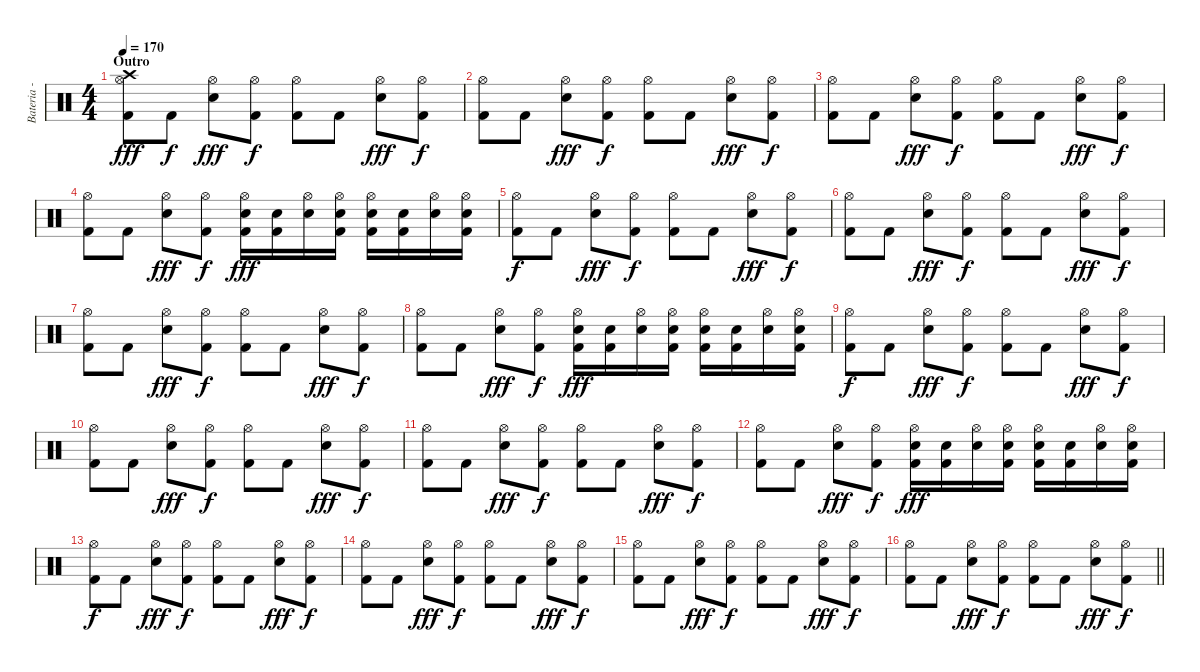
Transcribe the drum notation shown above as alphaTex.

\track ("Bateria - Larzon" "Bateria - ") {instrument percussion}
\staff {score}
\articulation defaults
\ts (4 4)
\section ("" "Outro")
\tempo 170
\clef neutral
\ks c
("Crash high (hit)" "Kick (hit) 2" "Hi-Hat (open)").8{dy fff} "Kick (hit) 2".8{dy f} ("Hi-Hat (open)" "Snare (hit) 2").8{dy fff} ("Kick (hit) 2" "Hi-Hat (open)").8{dy f} ("Kick (hit) 2" "Hi-Hat (open)").8 "Kick (hit) 2".8 ("Hi-Hat (open)" "Snare (hit) 2").8{dy fff} ("Kick (hit) 2" "Hi-Hat (open)").8{dy f} |
("Kick (hit) 2" "Hi-Hat (open)").8 "Kick (hit) 2".8 ("Hi-Hat (open)" "Snare (hit) 2").8{dy fff} ("Kick (hit) 2" "Hi-Hat (open)").8{dy f} ("Kick (hit) 2" "Hi-Hat (open)").8 "Kick (hit) 2".8 ("Hi-Hat (open)" "Snare (hit) 2").8{dy fff} ("Kick (hit) 2" "Hi-Hat (open)").8{dy f} |
("Kick (hit) 2" "Hi-Hat (open)").8 "Kick (hit) 2".8 ("Hi-Hat (open)" "Snare (hit) 2").8{dy fff} ("Kick (hit) 2" "Hi-Hat (open)").8{dy f} ("Kick (hit) 2" "Hi-Hat (open)").8 "Kick (hit) 2".8 ("Hi-Hat (open)" "Snare (hit) 2").8{dy fff} ("Kick (hit) 2" "Hi-Hat (open)").8{dy f} |
("Kick (hit) 2" "Hi-Hat (open)").8 "Kick (hit) 2".8 ("Hi-Hat (open)" "Snare (hit) 2").8{dy fff} ("Kick (hit) 2" "Hi-Hat (open)").8{dy f} ("Kick (hit) 2" "Hi-Hat (open)" "Snare (hit) 2").16{dy fff} ("Kick (hit) 2" "Snare (hit) 2").16 ("Hi-Hat (open)" "Snare (hit) 2").16 ("Kick (hit) 2" "Hi-Hat (open)" "Snare (hit) 2").16 ("Kick (hit) 2" "Hi-Hat (open)" "Snare (hit) 2").16 ("Kick (hit) 2" "Snare (hit) 2").16 ("Hi-Hat (open)" "Snare (hit) 2").16 ("Kick (hit) 2" "Hi-Hat (open)" "Snare (hit) 2").16 |
("Kick (hit) 2" "Hi-Hat (open)").8{dy f} "Kick (hit) 2".8 ("Hi-Hat (open)" "Snare (hit) 2").8{dy fff} ("Kick (hit) 2" "Hi-Hat (open)").8{dy f} ("Kick (hit) 2" "Hi-Hat (open)").8 "Kick (hit) 2".8 ("Hi-Hat (open)" "Snare (hit) 2").8{dy fff} ("Kick (hit) 2" "Hi-Hat (open)").8{dy f} |
("Kick (hit) 2" "Hi-Hat (open)").8 "Kick (hit) 2".8 ("Hi-Hat (open)" "Snare (hit) 2").8{dy fff} ("Kick (hit) 2" "Hi-Hat (open)").8{dy f} ("Kick (hit) 2" "Hi-Hat (open)").8 "Kick (hit) 2".8 ("Hi-Hat (open)" "Snare (hit) 2").8{dy fff} ("Kick (hit) 2" "Hi-Hat (open)").8{dy f} |
("Kick (hit) 2" "Hi-Hat (open)").8 "Kick (hit) 2".8 ("Hi-Hat (open)" "Snare (hit) 2").8{dy fff} ("Kick (hit) 2" "Hi-Hat (open)").8{dy f} ("Kick (hit) 2" "Hi-Hat (open)").8 "Kick (hit) 2".8 ("Hi-Hat (open)" "Snare (hit) 2").8{dy fff} ("Kick (hit) 2" "Hi-Hat (open)").8{dy f} |
("Kick (hit) 2" "Hi-Hat (open)").8 "Kick (hit) 2".8 ("Hi-Hat (open)" "Snare (hit) 2").8{dy fff} ("Kick (hit) 2" "Hi-Hat (open)").8{dy f} ("Kick (hit) 2" "Hi-Hat (open)" "Snare (hit) 2").16{dy fff} ("Kick (hit) 2" "Snare (hit) 2").16 ("Hi-Hat (open)" "Snare (hit) 2").16 ("Kick (hit) 2" "Hi-Hat (open)" "Snare (hit) 2").16 ("Kick (hit) 2" "Hi-Hat (open)" "Snare (hit) 2").16 ("Kick (hit) 2" "Snare (hit) 2").16 ("Hi-Hat (open)" "Snare (hit) 2").16 ("Kick (hit) 2" "Hi-Hat (open)" "Snare (hit) 2").16 |
("Kick (hit) 2" "Hi-Hat (open)").8{dy f} "Kick (hit) 2".8 ("Hi-Hat (open)" "Snare (hit) 2").8{dy fff} ("Kick (hit) 2" "Hi-Hat (open)").8{dy f} ("Kick (hit) 2" "Hi-Hat (open)").8 "Kick (hit) 2".8 ("Hi-Hat (open)" "Snare (hit) 2").8{dy fff} ("Kick (hit) 2" "Hi-Hat (open)").8{dy f} |
("Kick (hit) 2" "Hi-Hat (open)").8 "Kick (hit) 2".8 ("Hi-Hat (open)" "Snare (hit) 2").8{dy fff} ("Kick (hit) 2" "Hi-Hat (open)").8{dy f} ("Kick (hit) 2" "Hi-Hat (open)").8 "Kick (hit) 2".8 ("Hi-Hat (open)" "Snare (hit) 2").8{dy fff} ("Kick (hit) 2" "Hi-Hat (open)").8{dy f} |
("Kick (hit) 2" "Hi-Hat (open)").8 "Kick (hit) 2".8 ("Hi-Hat (open)" "Snare (hit) 2").8{dy fff} ("Kick (hit) 2" "Hi-Hat (open)").8{dy f} ("Kick (hit) 2" "Hi-Hat (open)").8 "Kick (hit) 2".8 ("Hi-Hat (open)" "Snare (hit) 2").8{dy fff} ("Kick (hit) 2" "Hi-Hat (open)").8{dy f} |
("Kick (hit) 2" "Hi-Hat (open)").8 "Kick (hit) 2".8 ("Hi-Hat (open)" "Snare (hit) 2").8{dy fff} ("Kick (hit) 2" "Hi-Hat (open)").8{dy f} ("Kick (hit) 2" "Hi-Hat (open)" "Snare (hit) 2").16{dy fff} ("Kick (hit) 2" "Snare (hit) 2").16 ("Hi-Hat (open)" "Snare (hit) 2").16 ("Kick (hit) 2" "Hi-Hat (open)" "Snare (hit) 2").16 ("Kick (hit) 2" "Hi-Hat (open)" "Snare (hit) 2").16 ("Kick (hit) 2" "Snare (hit) 2").16 ("Hi-Hat (open)" "Snare (hit) 2").16 ("Kick (hit) 2" "Hi-Hat (open)" "Snare (hit) 2").16 |
("Kick (hit) 2" "Hi-Hat (open)").8{dy f} "Kick (hit) 2".8 ("Hi-Hat (open)" "Snare (hit) 2").8{dy fff} ("Kick (hit) 2" "Hi-Hat (open)").8{dy f} ("Kick (hit) 2" "Hi-Hat (open)").8 "Kick (hit) 2".8 ("Hi-Hat (open)" "Snare (hit) 2").8{dy fff} ("Kick (hit) 2" "Hi-Hat (open)").8{dy f} |
("Kick (hit) 2" "Hi-Hat (open)").8 "Kick (hit) 2".8 ("Hi-Hat (open)" "Snare (hit) 2").8{dy fff} ("Kick (hit) 2" "Hi-Hat (open)").8{dy f} ("Kick (hit) 2" "Hi-Hat (open)").8 "Kick (hit) 2".8 ("Hi-Hat (open)" "Snare (hit) 2").8{dy fff} ("Kick (hit) 2" "Hi-Hat (open)").8{dy f} |
("Kick (hit) 2" "Hi-Hat (open)").8 "Kick (hit) 2".8 ("Hi-Hat (open)" "Snare (hit) 2").8{dy fff} ("Kick (hit) 2" "Hi-Hat (open)").8{dy f} ("Kick (hit) 2" "Hi-Hat (open)").8 "Kick (hit) 2".8 ("Hi-Hat (open)" "Snare (hit) 2").8{dy fff} ("Kick (hit) 2" "Hi-Hat (open)").8{dy f} |
\barLineRight lightlight
("Kick (hit) 2" "Hi-Hat (open)").8 "Kick (hit) 2".8 ("Hi-Hat (open)" "Snare (hit) 2").8{dy fff} ("Kick (hit) 2" "Hi-Hat (open)").8{dy f} ("Kick (hit) 2" "Hi-Hat (open)").8 "Kick (hit) 2".8 ("Hi-Hat (open)" "Snare (hit) 2").8{dy fff} ("Kick (hit) 2" "Hi-Hat (open)").8{dy f}
